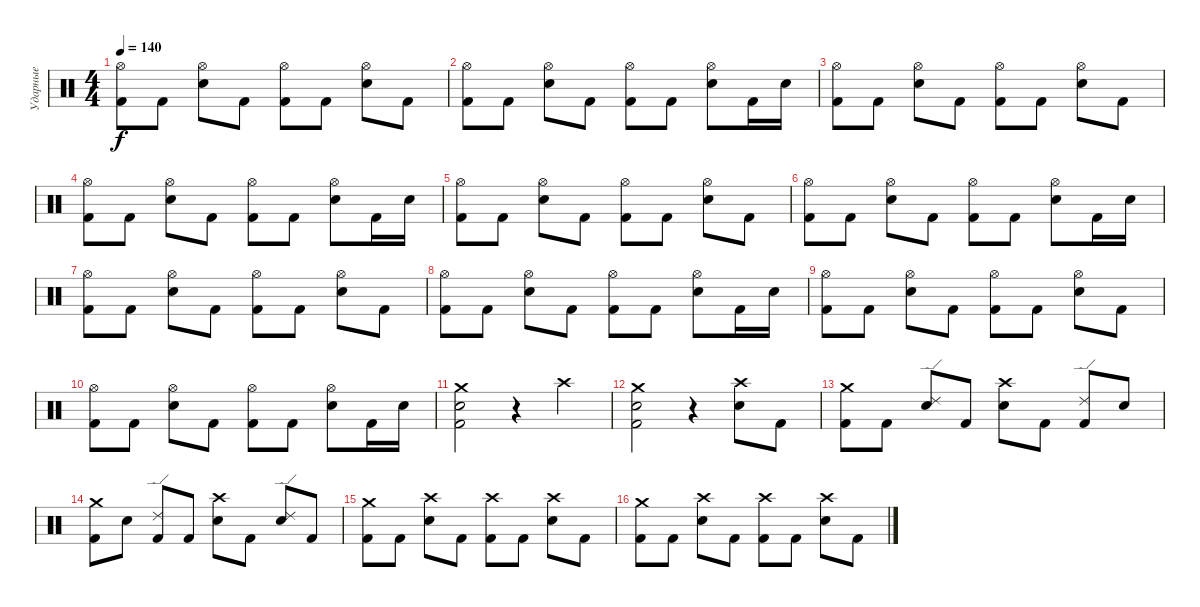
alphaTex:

\track ("Ударные" "Ударные") {instrument percussion}
\staff {score}
\articulation defaults
\ts (4 4)
\tempo 140
\clef neutral
\ks c
("Hi-Hat (open)" "Kick (hit) 2").8{dy f} "Kick (hit) 2".8 ("Hi-Hat (open)" "Electric Snare (hit)").8 "Kick (hit) 2".8 ("Hi-Hat (open)" "Kick (hit) 2").8 "Kick (hit) 2".8 ("Hi-Hat (open)" "Electric Snare (hit)").8 "Kick (hit) 2".8 |
("Hi-Hat (open)" "Kick (hit) 2").8 "Kick (hit) 2".8 ("Hi-Hat (open)" "Electric Snare (hit)").8 "Kick (hit) 2".8 ("Hi-Hat (open)" "Kick (hit) 2").8 "Kick (hit) 2".8 ("Hi-Hat (open)" "Electric Snare (hit)").8 "Kick (hit) 2".16 "Electric Snare (hit)".16 |
("Hi-Hat (open)" "Kick (hit) 2").8 "Kick (hit) 2".8 ("Hi-Hat (open)" "Electric Snare (hit)").8 "Kick (hit) 2".8 ("Hi-Hat (open)" "Kick (hit) 2").8 "Kick (hit) 2".8 ("Hi-Hat (open)" "Electric Snare (hit)").8 "Kick (hit) 2".8 |
("Hi-Hat (open)" "Kick (hit) 2").8 "Kick (hit) 2".8 ("Hi-Hat (open)" "Electric Snare (hit)").8 "Kick (hit) 2".8 ("Hi-Hat (open)" "Kick (hit) 2").8 "Kick (hit) 2".8 ("Hi-Hat (open)" "Electric Snare (hit)").8 "Kick (hit) 2".16 "Electric Snare (hit)".16 |
("Hi-Hat (open)" "Kick (hit) 2").8 "Kick (hit) 2".8 ("Hi-Hat (open)" "Electric Snare (hit)").8 "Kick (hit) 2".8 ("Hi-Hat (open)" "Kick (hit) 2").8 "Kick (hit) 2".8 ("Hi-Hat (open)" "Electric Snare (hit)").8 "Kick (hit) 2".8 |
("Hi-Hat (open)" "Kick (hit) 2").8 "Kick (hit) 2".8 ("Hi-Hat (open)" "Electric Snare (hit)").8 "Kick (hit) 2".8 ("Hi-Hat (open)" "Kick (hit) 2").8 "Kick (hit) 2".8 ("Hi-Hat (open)" "Electric Snare (hit)").8 "Kick (hit) 2".16 "Electric Snare (hit)".16 |
("Hi-Hat (open)" "Kick (hit) 2").8 "Kick (hit) 2".8 ("Hi-Hat (open)" "Electric Snare (hit)").8 "Kick (hit) 2".8 ("Hi-Hat (open)" "Kick (hit) 2").8 "Kick (hit) 2".8 ("Hi-Hat (open)" "Electric Snare (hit)").8 "Kick (hit) 2".8 |
("Hi-Hat (open)" "Kick (hit) 2").8 "Kick (hit) 2".8 ("Hi-Hat (open)" "Electric Snare (hit)").8 "Kick (hit) 2".8 ("Hi-Hat (open)" "Kick (hit) 2").8 "Kick (hit) 2".8 ("Hi-Hat (open)" "Electric Snare (hit)").8 "Kick (hit) 2".16 "Electric Snare (hit)".16 |
("Hi-Hat (open)" "Kick (hit) 2").8 "Kick (hit) 2".8 ("Hi-Hat (open)" "Electric Snare (hit)").8 "Kick (hit) 2".8 ("Hi-Hat (open)" "Kick (hit) 2").8 "Kick (hit) 2".8 ("Hi-Hat (open)" "Electric Snare (hit)").8 "Kick (hit) 2".8 |
("Hi-Hat (open)" "Kick (hit) 2").8 "Kick (hit) 2".8 ("Hi-Hat (open)" "Electric Snare (hit)").8 "Kick (hit) 2".8 ("Hi-Hat (open)" "Kick (hit) 2").8 "Kick (hit) 2".8 ("Hi-Hat (open)" "Electric Snare (hit)").8 "Kick (hit) 2".16 "Electric Snare (hit)".16 |
("Crash medium (hit)" "Electric Snare (hit)" "Kick (hit) 2").2 r.4 "Crash high (hit)".4 |
("Crash medium (hit)" "Electric Snare (hit)" "Kick (hit) 2").2 r.4 ("Crash high (hit)" "Electric Snare (hit)").8 "Kick (hit) 2".8 |
("Crash medium (hit)" "Kick (hit) 2").8 "Kick (hit) 2".8 ("Ride (edge) 2" "Electric Snare (hit)").8 "Kick (hit) 2".8 ("Crash high (hit)" "Electric Snare (hit)").8 "Kick (hit) 2".8 ("Ride (edge) 2" "Kick (hit) 2").8 "Electric Snare (hit)".8 |
("Crash medium (hit)" "Kick (hit) 2").8 "Electric Snare (hit)".8 ("Ride (edge) 2" "Kick (hit) 2").8 "Kick (hit) 2".8 ("Crash high (hit)" "Electric Snare (hit)").8 "Kick (hit) 2".8 ("Ride (edge) 2" "Electric Snare (hit)").8 "Kick (hit) 2".8 |
("Crash medium (hit)" "Kick (hit) 2").8 "Kick (hit) 2".8 ("Crash high (hit)" "Electric Snare (hit)").8 "Kick (hit) 2".8 ("Crash high (hit)" "Kick (hit) 2").8 "Kick (hit) 2".8 ("Crash high (hit)" "Electric Snare (hit)").8 "Kick (hit) 2".8 |
("Crash medium (hit)" "Kick (hit) 2").8 "Kick (hit) 2".8 ("Crash high (hit)" "Electric Snare (hit)").8 "Kick (hit) 2".8 ("Crash high (hit)" "Kick (hit) 2").8 "Kick (hit) 2".8 ("Crash high (hit)" "Electric Snare (hit)").8 "Kick (hit) 2".8
